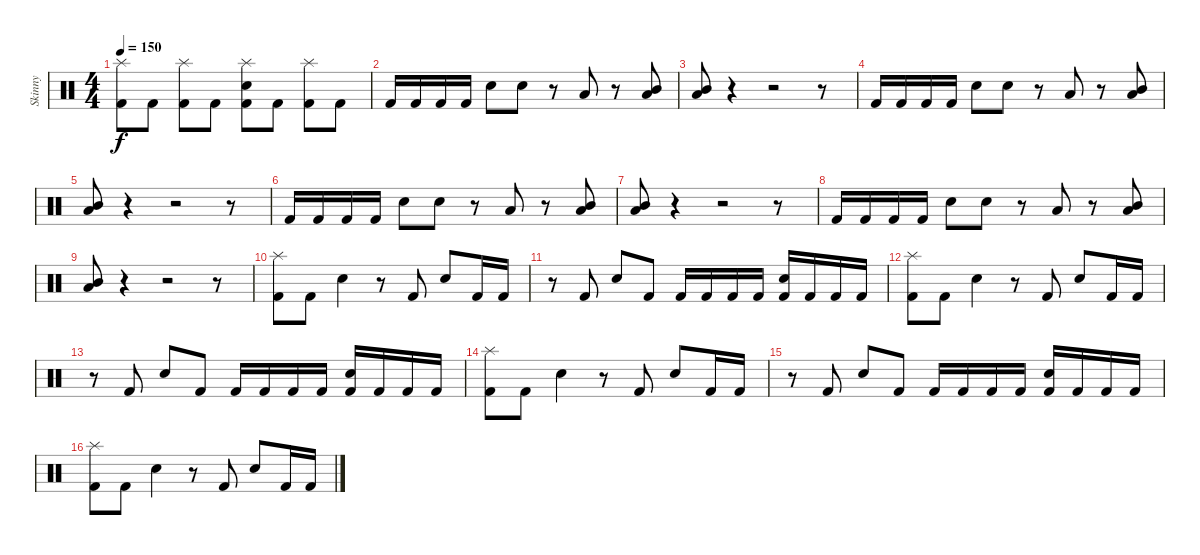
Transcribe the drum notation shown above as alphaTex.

\track ("Skinny" "Skinny") {instrument percussion}
\staff {score}
\articulation defaults
\ts (4 4)
\tempo 150
\clef neutral
\ks c
("Splash (hit)" "Kick (hit) 2").8{dy f} "Kick (hit) 2".8 ("Splash (hit)" "Kick (hit) 2").8 "Kick (hit) 2".8 ("Splash (hit)" "Electric Snare (hit)" "Kick (hit) 2").8 "Kick (hit) 2".8 ("Splash (hit)" "Kick (hit) 2").8 "Kick (hit) 2".8 |
"Kick (hit) 2".16 "Kick (hit) 2".16 "Kick (hit) 2".16 "Kick (hit) 2".16 "Electric Snare (hit)".8 "Electric Snare (hit)".8 r.8 "Low Tom (hit)".8 r.8 ("Mid Tom (hit)" "Low Floor Tom (hit)").8 |
("Mid Tom (hit)" "Low Floor Tom (hit)").8 r.4 r.2 r.8 |
"Kick (hit) 2".16 "Kick (hit) 2".16 "Kick (hit) 2".16 "Kick (hit) 2".16 "Electric Snare (hit)".8 "Electric Snare (hit)".8 r.8 "Low Tom (hit)".8 r.8 ("Mid Tom (hit)" "Low Floor Tom (hit)").8 |
("Mid Tom (hit)" "Low Floor Tom (hit)").8 r.4 r.2 r.8 |
"Kick (hit) 2".16 "Kick (hit) 2".16 "Kick (hit) 2".16 "Kick (hit) 2".16 "Electric Snare (hit)".8 "Electric Snare (hit)".8 r.8 "Low Tom (hit)".8 r.8 ("Mid Tom (hit)" "Low Floor Tom (hit)").8 |
("Mid Tom (hit)" "Low Floor Tom (hit)").8 r.4 r.2 r.8 |
"Kick (hit) 2".16 "Kick (hit) 2".16 "Kick (hit) 2".16 "Kick (hit) 2".16 "Electric Snare (hit)".8 "Electric Snare (hit)".8 r.8 "Low Tom (hit)".8 r.8 ("Mid Tom (hit)" "Low Floor Tom (hit)").8 |
("Mid Tom (hit)" "Low Floor Tom (hit)").8 r.4 r.2 r.8 |
("Splash (hit)" "Kick (hit) 2").8 "Kick (hit) 2".8 "Electric Snare (hit)".4 r.8 "Kick (hit) 2".8 "Electric Snare (hit)".8 "Kick (hit) 2".16 "Kick (hit) 2".16 |
r.8 "Kick (hit) 2".8 "Electric Snare (hit)".8 "Kick (hit) 2".8 "Kick (hit) 2".16 "Kick (hit) 2".16 "Kick (hit) 2".16 "Kick (hit) 2".16 ("Electric Snare (hit)" "Kick (hit) 2").16 "Kick (hit) 2".16 "Kick (hit) 2".16 "Kick (hit) 2".16 |
("Splash (hit)" "Kick (hit) 2").8 "Kick (hit) 2".8 "Electric Snare (hit)".4 r.8 "Kick (hit) 2".8 "Electric Snare (hit)".8 "Kick (hit) 2".16 "Kick (hit) 2".16 |
r.8 "Kick (hit) 2".8 "Electric Snare (hit)".8 "Kick (hit) 2".8 "Kick (hit) 2".16 "Kick (hit) 2".16 "Kick (hit) 2".16 "Kick (hit) 2".16 ("Electric Snare (hit)" "Kick (hit) 2").16 "Kick (hit) 2".16 "Kick (hit) 2".16 "Kick (hit) 2".16 |
("Splash (hit)" "Kick (hit) 2").8 "Kick (hit) 2".8 "Electric Snare (hit)".4 r.8 "Kick (hit) 2".8 "Electric Snare (hit)".8 "Kick (hit) 2".16 "Kick (hit) 2".16 |
r.8 "Kick (hit) 2".8 "Electric Snare (hit)".8 "Kick (hit) 2".8 "Kick (hit) 2".16 "Kick (hit) 2".16 "Kick (hit) 2".16 "Kick (hit) 2".16 ("Electric Snare (hit)" "Kick (hit) 2").16 "Kick (hit) 2".16 "Kick (hit) 2".16 "Kick (hit) 2".16 |
("Splash (hit)" "Kick (hit) 2").8 "Kick (hit) 2".8 "Electric Snare (hit)".4 r.8 "Kick (hit) 2".8 "Electric Snare (hit)".8 "Kick (hit) 2".16 "Kick (hit) 2".16
